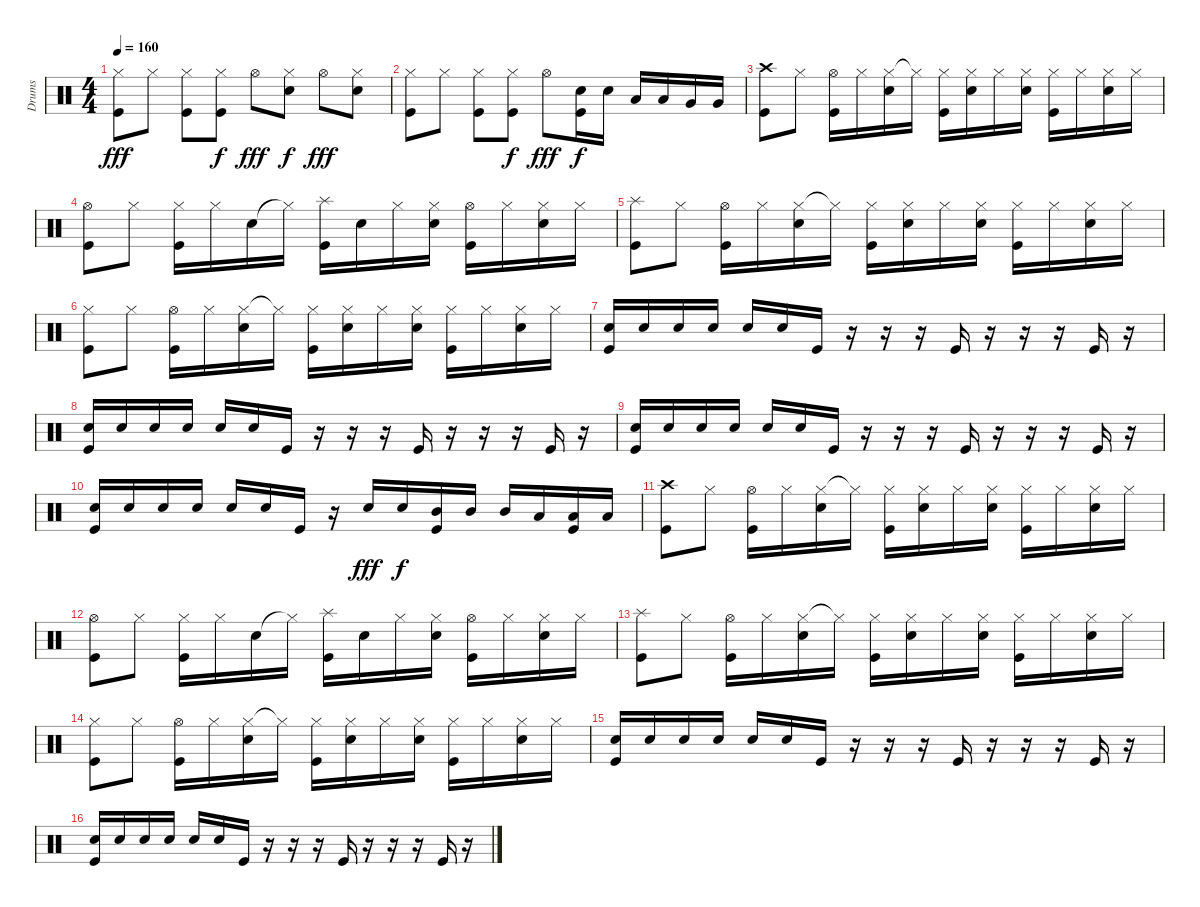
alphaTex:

\track ("Drums" "Drums") {instrument percussion}
\staff {score}
\articulation defaults
\ts (4 4)
\tempo 160
\clef neutral
\ks c
("Hi-Hat (closed)" "Kick (hit)").8{dy fff} "Hi-Hat (closed)".8 ("Hi-Hat (closed)" "Kick (hit)").8 ("Hi-Hat (closed)" "Kick (hit)").8{dy f} "Hi-Hat (open)".8{dy fff} ("Hi-Hat (closed)" "Electric Snare (hit)").8{dy f} "Hi-Hat (open)".8{dy fff} ("Hi-Hat (closed)" "Electric Snare (hit)").8 |
("Hi-Hat (closed)" "Kick (hit)").8 "Hi-Hat (closed)".8 ("Hi-Hat (closed)" "Kick (hit)").8 ("Hi-Hat (closed)" "Kick (hit)").8{dy f} "Hi-Hat (open)".8{dy fff} ("Electric Snare (hit)" "Kick (hit)").16{dy f} "Electric Snare (hit)".16 "Low Tom (hit)".16 "Low Tom (hit)".16 "Very Low Tom (hit)".16 "Very Low Tom (hit)".16 |
("Crash high (hit)" "Kick (hit)").8 "Hi-Hat (closed)".8 ("Hi-Hat (open)" "Kick (hit)").16 "Hi-Hat (closed)".16 ("Hi-Hat (closed)" "Electric Snare (hit)").16 "Hi-Hat (closed)"{t}.16 ("Hi-Hat (closed)" "Kick (hit)").16 ("Hi-Hat (closed)" "Electric Snare (hit)").16 "Hi-Hat (closed)".16 ("Hi-Hat (closed)" "Electric Snare (hit)").16 ("Hi-Hat (closed)" "Kick (hit)").16 "Hi-Hat (closed)".16 ("Hi-Hat (closed)" "Electric Snare (hit)").16 "Hi-Hat (closed)".16 |
("Hi-Hat (open)" "Kick (hit)").8 "Hi-Hat (closed)".8 ("Hi-Hat (closed)" "Kick (hit)").16 "Hi-Hat (closed)".16 "Electric Snare (hit)".16 "Hi-Hat (closed)"{t}.16 ("Splash (hit)" "Kick (hit)").16 "Electric Snare (hit)".16 "Hi-Hat (closed)".16 ("Hi-Hat (closed)" "Electric Snare (hit)").16 ("Hi-Hat (open)" "Kick (hit)").16 "Hi-Hat (closed)".16 ("Hi-Hat (closed)" "Electric Snare (hit)").16 "Hi-Hat (closed)".16 |
("Splash (hit)" "Kick (hit)").8 "Hi-Hat (closed)".8 ("Hi-Hat (open)" "Kick (hit)").16 "Hi-Hat (closed)".16 ("Hi-Hat (closed)" "Electric Snare (hit)").16 "Hi-Hat (closed)"{t}.16 ("Hi-Hat (closed)" "Kick (hit)").16 ("Hi-Hat (closed)" "Electric Snare (hit)").16 "Hi-Hat (closed)".16 ("Hi-Hat (closed)" "Electric Snare (hit)").16 ("Hi-Hat (closed)" "Kick (hit)").16 "Hi-Hat (closed)".16 ("Hi-Hat (closed)" "Electric Snare (hit)").16 "Hi-Hat (closed)".16 |
("Hi-Hat (closed)" "Kick (hit)").8 "Hi-Hat (closed)".8 ("Hi-Hat (open)" "Kick (hit)").16 "Hi-Hat (closed)".16 ("Hi-Hat (closed)" "Electric Snare (hit)").16 "Hi-Hat (closed)"{t}.16 ("Hi-Hat (closed)" "Kick (hit)").16 ("Hi-Hat (closed)" "Electric Snare (hit)").16 "Hi-Hat (closed)".16 ("Hi-Hat (closed)" "Electric Snare (hit)").16 ("Hi-Hat (closed)" "Kick (hit)").16 "Hi-Hat (closed)".16 ("Hi-Hat (closed)" "Electric Snare (hit)").16 "Hi-Hat (closed)".16 |
("Electric Snare (hit)" "Kick (hit)").16 "Electric Snare (hit)".16 "Electric Snare (hit)".16 "Electric Snare (hit)".16 "Electric Snare (hit)".16 "Electric Snare (hit)".16 "Kick (hit)".16 r.16 r.16 r.16 "Kick (hit)".16 r.16 r.16 r.16 "Kick (hit)".16 r.16 |
("Electric Snare (hit)" "Kick (hit)").16 "Electric Snare (hit)".16 "Electric Snare (hit)".16 "Electric Snare (hit)".16 "Electric Snare (hit)".16 "Electric Snare (hit)".16 "Kick (hit)".16 r.16 r.16 r.16 "Kick (hit)".16 r.16 r.16 r.16 "Kick (hit)".16 r.16 |
("Electric Snare (hit)" "Kick (hit)").16 "Electric Snare (hit)".16 "Electric Snare (hit)".16 "Electric Snare (hit)".16 "Electric Snare (hit)".16 "Electric Snare (hit)".16 "Kick (hit)".16 r.16 r.16 r.16 "Kick (hit)".16 r.16 r.16 r.16 "Kick (hit)".16 r.16 |
("Electric Snare (hit)" "Kick (hit)").16 "Electric Snare (hit)".16 "Electric Snare (hit)".16 "Electric Snare (hit)".16 "Electric Snare (hit)".16 "Electric Snare (hit)".16 "Kick (hit)".16 r.16 "Electric Snare (hit)".16{dy fff} "Electric Snare (hit)".16{dy f} ("Mid Tom (hit)" "Kick (hit)").16 "Mid Tom (hit)".16 "Mid Tom (hit)".16 "Low Tom (hit)".16 ("Low Tom (hit)" "Kick (hit)").16 "Low Tom (hit)".16 |
("Crash high (hit)" "Kick (hit)").8 "Hi-Hat (closed)".8 ("Hi-Hat (open)" "Kick (hit)").16 "Hi-Hat (closed)".16 ("Hi-Hat (closed)" "Electric Snare (hit)").16 "Hi-Hat (closed)"{t}.16 ("Hi-Hat (closed)" "Kick (hit)").16 ("Hi-Hat (closed)" "Electric Snare (hit)").16 "Hi-Hat (closed)".16 ("Hi-Hat (closed)" "Electric Snare (hit)").16 ("Hi-Hat (closed)" "Kick (hit)").16 "Hi-Hat (closed)".16 ("Hi-Hat (closed)" "Electric Snare (hit)").16 "Hi-Hat (closed)".16 |
("Hi-Hat (open)" "Kick (hit)").8 "Hi-Hat (closed)".8 ("Hi-Hat (closed)" "Kick (hit)").16 "Hi-Hat (closed)".16 "Electric Snare (hit)".16 "Hi-Hat (closed)"{t}.16 ("Splash (hit)" "Kick (hit)").16 "Electric Snare (hit)".16 "Hi-Hat (closed)".16 ("Hi-Hat (closed)" "Electric Snare (hit)").16 ("Hi-Hat (open)" "Kick (hit)").16 "Hi-Hat (closed)".16 ("Hi-Hat (closed)" "Electric Snare (hit)").16 "Hi-Hat (closed)".16 |
("Splash (hit)" "Kick (hit)").8 "Hi-Hat (closed)".8 ("Hi-Hat (open)" "Kick (hit)").16 "Hi-Hat (closed)".16 ("Hi-Hat (closed)" "Electric Snare (hit)").16 "Hi-Hat (closed)"{t}.16 ("Hi-Hat (closed)" "Kick (hit)").16 ("Hi-Hat (closed)" "Electric Snare (hit)").16 "Hi-Hat (closed)".16 ("Hi-Hat (closed)" "Electric Snare (hit)").16 ("Hi-Hat (closed)" "Kick (hit)").16 "Hi-Hat (closed)".16 ("Hi-Hat (closed)" "Electric Snare (hit)").16 "Hi-Hat (closed)".16 |
("Hi-Hat (closed)" "Kick (hit)").8 "Hi-Hat (closed)".8 ("Hi-Hat (open)" "Kick (hit)").16 "Hi-Hat (closed)".16 ("Hi-Hat (closed)" "Electric Snare (hit)").16 "Hi-Hat (closed)"{t}.16 ("Hi-Hat (closed)" "Kick (hit)").16 ("Hi-Hat (closed)" "Electric Snare (hit)").16 "Hi-Hat (closed)".16 ("Hi-Hat (closed)" "Electric Snare (hit)").16 ("Hi-Hat (closed)" "Kick (hit)").16 "Hi-Hat (closed)".16 ("Hi-Hat (closed)" "Electric Snare (hit)").16 "Hi-Hat (closed)".16 |
("Electric Snare (hit)" "Kick (hit)").16 "Electric Snare (hit)".16 "Electric Snare (hit)".16 "Electric Snare (hit)".16 "Electric Snare (hit)".16 "Electric Snare (hit)".16 "Kick (hit)".16 r.16 r.16 r.16 "Kick (hit)".16 r.16 r.16 r.16 "Kick (hit)".16 r.16 |
("Electric Snare (hit)" "Kick (hit)").16 "Electric Snare (hit)".16 "Electric Snare (hit)".16 "Electric Snare (hit)".16 "Electric Snare (hit)".16 "Electric Snare (hit)".16 "Kick (hit)".16 r.16 r.16 r.16 "Kick (hit)".16 r.16 r.16 r.16 "Kick (hit)".16 r.16
